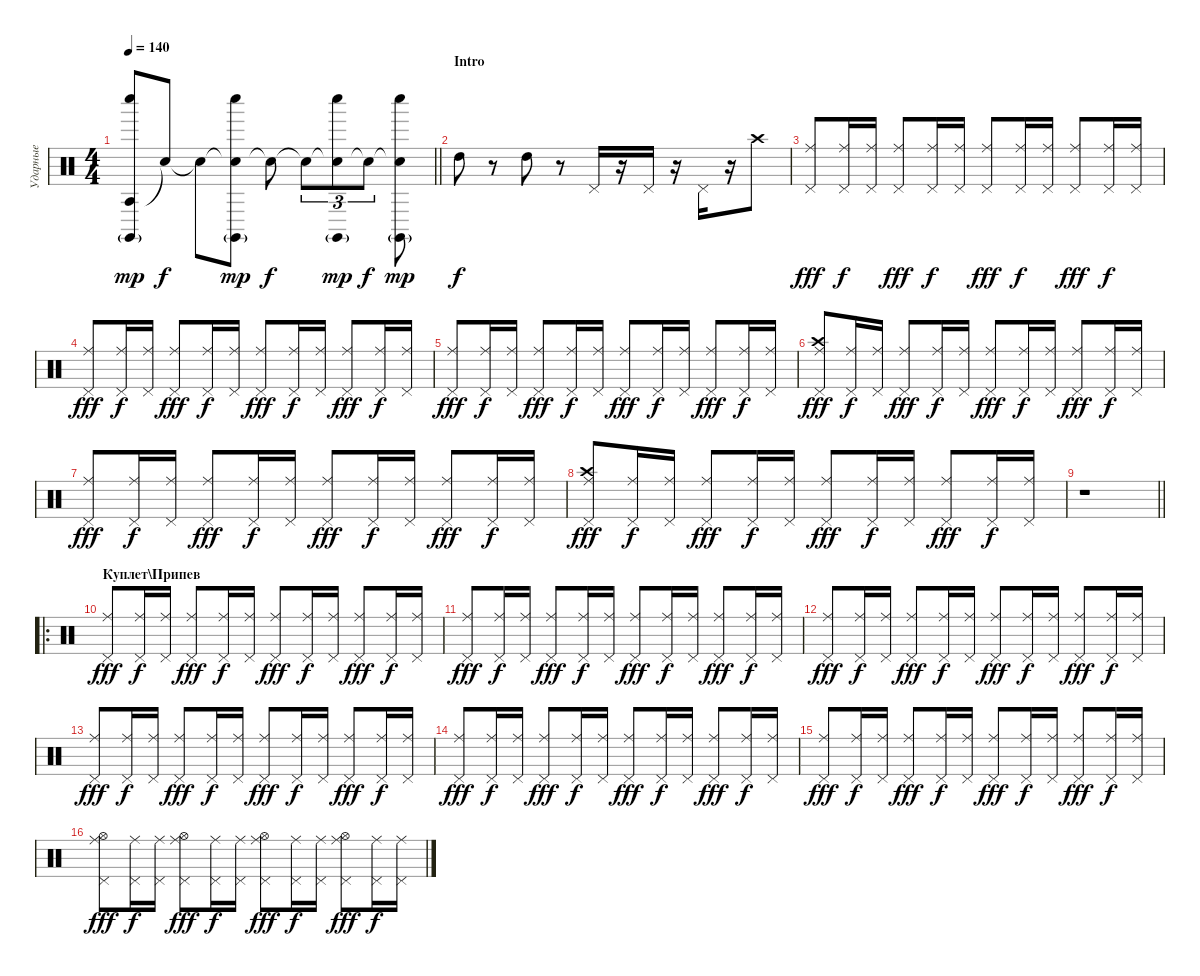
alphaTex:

\track ("Ударные" "Ударные") {instrument percussion}
\staff {score}
\articulation defaults
\ts (4 4)
\tempo 140
\clef neutral
\barLineRight lightlight
\ks c
("Agogo tow (hit)" "Whistle low (hit)" "Claves (hit)"{g}).8{dy mp} "Snare (hit)"{t}.8{dy f} "Snare (hit)"{t}.8 ("Snare (hit)"{t} "Whistle low (hit)" "Claves (hit)"{g}).8{dy mp} "Snare (hit)"{t}.8{dy f} "Snare (hit)"{t}.8{tu (3 2)} ("Snare (hit)"{t} "Whistle low (hit)" "Claves (hit)"{g}).8{tu (3 2) dy mp} "Snare (hit)"{t}.8{tu (3 2) dy f} ("Snare (hit)"{t} "Whistle low (hit)" "Claves (hit)"{g}).8{dy mp} |
\section ("" "Intro")
"High Tom (hit)".8{dy f} r.8 "High Tom (hit)".8 r.8 "Pedal Hi-Hat (hit)".16 r.16 "Pedal Hi-Hat (hit)".16 r.16 "Pedal Hi-Hat (hit)".16 r.16 "Crash high (hit)".8 |
("Ride (middle)" "Pedal Hi-Hat (hit)").8{dy fff} ("Ride (middle)" "Pedal Hi-Hat (hit)").16{dy f} ("Ride (middle)" "Pedal Hi-Hat (hit)").16 ("Ride (middle)" "Pedal Hi-Hat (hit)").8{dy fff} ("Ride (middle)" "Pedal Hi-Hat (hit)").16{dy f} ("Ride (middle)" "Pedal Hi-Hat (hit)").16 ("Ride (middle)" "Pedal Hi-Hat (hit)").8{dy fff} ("Ride (middle)" "Pedal Hi-Hat (hit)").16{dy f} ("Ride (middle)" "Pedal Hi-Hat (hit)").16 ("Ride (middle)" "Pedal Hi-Hat (hit)").8{dy fff} ("Ride (middle)" "Pedal Hi-Hat (hit)").16{dy f} ("Ride (middle)" "Pedal Hi-Hat (hit)").16 |
("Ride (middle)" "Pedal Hi-Hat (hit)").8{dy fff} ("Ride (middle)" "Pedal Hi-Hat (hit)").16{dy f} ("Ride (middle)" "Pedal Hi-Hat (hit)").16 ("Ride (middle)" "Pedal Hi-Hat (hit)").8{dy fff} ("Ride (middle)" "Pedal Hi-Hat (hit)").16{dy f} ("Ride (middle)" "Pedal Hi-Hat (hit)").16 ("Ride (middle)" "Pedal Hi-Hat (hit)").8{dy fff} ("Ride (middle)" "Pedal Hi-Hat (hit)").16{dy f} ("Ride (middle)" "Pedal Hi-Hat (hit)").16 ("Ride (middle)" "Pedal Hi-Hat (hit)").8{dy fff} ("Ride (middle)" "Pedal Hi-Hat (hit)").16{dy f} ("Ride (middle)" "Pedal Hi-Hat (hit)").16 |
("Ride (middle)" "Pedal Hi-Hat (hit)").8{dy fff} ("Ride (middle)" "Pedal Hi-Hat (hit)").16{dy f} ("Ride (middle)" "Pedal Hi-Hat (hit)").16 ("Ride (middle)" "Pedal Hi-Hat (hit)").8{dy fff} ("Ride (middle)" "Pedal Hi-Hat (hit)").16{dy f} ("Ride (middle)" "Pedal Hi-Hat (hit)").16 ("Ride (middle)" "Pedal Hi-Hat (hit)").8{dy fff} ("Ride (middle)" "Pedal Hi-Hat (hit)").16{dy f} ("Ride (middle)" "Pedal Hi-Hat (hit)").16 ("Ride (middle)" "Pedal Hi-Hat (hit)").8{dy fff} ("Ride (middle)" "Pedal Hi-Hat (hit)").16{dy f} ("Ride (middle)" "Pedal Hi-Hat (hit)").16 |
("Ride (middle)" "Pedal Hi-Hat (hit)" "Crash high (hit)").8{dy fff} ("Ride (middle)" "Pedal Hi-Hat (hit)").16{dy f} ("Ride (middle)" "Pedal Hi-Hat (hit)").16 ("Ride (middle)" "Pedal Hi-Hat (hit)").8{dy fff} ("Ride (middle)" "Pedal Hi-Hat (hit)").16{dy f} ("Ride (middle)" "Pedal Hi-Hat (hit)").16 ("Ride (middle)" "Pedal Hi-Hat (hit)").8{dy fff} ("Ride (middle)" "Pedal Hi-Hat (hit)").16{dy f} ("Ride (middle)" "Pedal Hi-Hat (hit)").16 ("Ride (middle)" "Pedal Hi-Hat (hit)").8{dy fff} ("Ride (middle)" "Pedal Hi-Hat (hit)").16{dy f} ("Ride (middle)" "Pedal Hi-Hat (hit)").16 |
("Ride (middle)" "Pedal Hi-Hat (hit)").8{dy fff} ("Ride (middle)" "Pedal Hi-Hat (hit)").16{dy f} ("Ride (middle)" "Pedal Hi-Hat (hit)").16 ("Ride (middle)" "Pedal Hi-Hat (hit)").8{dy fff} ("Ride (middle)" "Pedal Hi-Hat (hit)").16{dy f} ("Ride (middle)" "Pedal Hi-Hat (hit)").16 ("Ride (middle)" "Pedal Hi-Hat (hit)").8{dy fff} ("Ride (middle)" "Pedal Hi-Hat (hit)").16{dy f} ("Ride (middle)" "Pedal Hi-Hat (hit)").16 ("Ride (middle)" "Pedal Hi-Hat (hit)").8{dy fff} ("Ride (middle)" "Pedal Hi-Hat (hit)").16{dy f} ("Ride (middle)" "Pedal Hi-Hat (hit)").16 |
("Ride (middle)" "Pedal Hi-Hat (hit)" "Crash high (hit)").8{dy fff} ("Ride (middle)" "Pedal Hi-Hat (hit)").16{dy f} ("Ride (middle)" "Pedal Hi-Hat (hit)").16 ("Ride (middle)" "Pedal Hi-Hat (hit)").8{dy fff} ("Ride (middle)" "Pedal Hi-Hat (hit)").16{dy f} ("Ride (middle)" "Pedal Hi-Hat (hit)").16 ("Ride (middle)" "Pedal Hi-Hat (hit)").8{dy fff} ("Ride (middle)" "Pedal Hi-Hat (hit)").16{dy f} ("Ride (middle)" "Pedal Hi-Hat (hit)").16 ("Ride (middle)" "Pedal Hi-Hat (hit)").8{dy fff} ("Ride (middle)" "Pedal Hi-Hat (hit)").16{dy f} ("Ride (middle)" "Pedal Hi-Hat (hit)").16 |
\barLineRight lightlight
r.1 |
\ro
\section ("" "Куплет\\Припев")
("Ride (middle)" "Pedal Hi-Hat (hit)").8{dy fff} ("Ride (middle)" "Pedal Hi-Hat (hit)").16{dy f} ("Ride (middle)" "Pedal Hi-Hat (hit)").16 ("Ride (middle)" "Pedal Hi-Hat (hit)").8{dy fff} ("Ride (middle)" "Pedal Hi-Hat (hit)").16{dy f} ("Ride (middle)" "Pedal Hi-Hat (hit)").16 ("Ride (middle)" "Pedal Hi-Hat (hit)").8{dy fff} ("Ride (middle)" "Pedal Hi-Hat (hit)").16{dy f} ("Ride (middle)" "Pedal Hi-Hat (hit)").16 ("Ride (middle)" "Pedal Hi-Hat (hit)").8{dy fff} ("Ride (middle)" "Pedal Hi-Hat (hit)").16{dy f} ("Ride (middle)" "Pedal Hi-Hat (hit)").16 |
("Ride (middle)" "Pedal Hi-Hat (hit)").8{dy fff} ("Ride (middle)" "Pedal Hi-Hat (hit)").16{dy f} ("Ride (middle)" "Pedal Hi-Hat (hit)").16 ("Ride (middle)" "Pedal Hi-Hat (hit)").8{dy fff} ("Ride (middle)" "Pedal Hi-Hat (hit)").16{dy f} ("Ride (middle)" "Pedal Hi-Hat (hit)").16 ("Ride (middle)" "Pedal Hi-Hat (hit)").8{dy fff} ("Ride (middle)" "Pedal Hi-Hat (hit)").16{dy f} ("Ride (middle)" "Pedal Hi-Hat (hit)").16 ("Ride (middle)" "Pedal Hi-Hat (hit)").8{dy fff} ("Ride (middle)" "Pedal Hi-Hat (hit)").16{dy f} ("Ride (middle)" "Pedal Hi-Hat (hit)").16 |
("Ride (middle)" "Pedal Hi-Hat (hit)").8{dy fff} ("Ride (middle)" "Pedal Hi-Hat (hit)").16{dy f} ("Ride (middle)" "Pedal Hi-Hat (hit)").16 ("Ride (middle)" "Pedal Hi-Hat (hit)").8{dy fff} ("Ride (middle)" "Pedal Hi-Hat (hit)").16{dy f} ("Ride (middle)" "Pedal Hi-Hat (hit)").16 ("Ride (middle)" "Pedal Hi-Hat (hit)").8{dy fff} ("Ride (middle)" "Pedal Hi-Hat (hit)").16{dy f} ("Ride (middle)" "Pedal Hi-Hat (hit)").16 ("Ride (middle)" "Pedal Hi-Hat (hit)").8{dy fff} ("Ride (middle)" "Pedal Hi-Hat (hit)").16{dy f} ("Ride (middle)" "Pedal Hi-Hat (hit)").16 |
("Ride (middle)" "Pedal Hi-Hat (hit)").8{dy fff} ("Ride (middle)" "Pedal Hi-Hat (hit)").16{dy f} ("Ride (middle)" "Pedal Hi-Hat (hit)").16 ("Ride (middle)" "Pedal Hi-Hat (hit)").8{dy fff} ("Ride (middle)" "Pedal Hi-Hat (hit)").16{dy f} ("Ride (middle)" "Pedal Hi-Hat (hit)").16 ("Ride (middle)" "Pedal Hi-Hat (hit)").8{dy fff} ("Ride (middle)" "Pedal Hi-Hat (hit)").16{dy f} ("Ride (middle)" "Pedal Hi-Hat (hit)").16 ("Ride (middle)" "Pedal Hi-Hat (hit)").8{dy fff} ("Ride (middle)" "Pedal Hi-Hat (hit)").16{dy f} ("Ride (middle)" "Pedal Hi-Hat (hit)").16 |
("Ride (middle)" "Pedal Hi-Hat (hit)").8{dy fff} ("Ride (middle)" "Pedal Hi-Hat (hit)").16{dy f} ("Ride (middle)" "Pedal Hi-Hat (hit)").16 ("Ride (middle)" "Pedal Hi-Hat (hit)").8{dy fff} ("Ride (middle)" "Pedal Hi-Hat (hit)").16{dy f} ("Ride (middle)" "Pedal Hi-Hat (hit)").16 ("Ride (middle)" "Pedal Hi-Hat (hit)").8{dy fff} ("Ride (middle)" "Pedal Hi-Hat (hit)").16{dy f} ("Ride (middle)" "Pedal Hi-Hat (hit)").16 ("Ride (middle)" "Pedal Hi-Hat (hit)").8{dy fff} ("Ride (middle)" "Pedal Hi-Hat (hit)").16{dy f} ("Ride (middle)" "Pedal Hi-Hat (hit)").16 |
("Ride (middle)" "Pedal Hi-Hat (hit)").8{dy fff} ("Ride (middle)" "Pedal Hi-Hat (hit)").16{dy f} ("Ride (middle)" "Pedal Hi-Hat (hit)").16 ("Ride (middle)" "Pedal Hi-Hat (hit)").8{dy fff} ("Ride (middle)" "Pedal Hi-Hat (hit)").16{dy f} ("Ride (middle)" "Pedal Hi-Hat (hit)").16 ("Ride (middle)" "Pedal Hi-Hat (hit)").8{dy fff} ("Ride (middle)" "Pedal Hi-Hat (hit)").16{dy f} ("Ride (middle)" "Pedal Hi-Hat (hit)").16 ("Ride (middle)" "Pedal Hi-Hat (hit)").8{dy fff} ("Ride (middle)" "Pedal Hi-Hat (hit)").16{dy f} ("Ride (middle)" "Pedal Hi-Hat (hit)").16 |
("Ride (middle)" "Pedal Hi-Hat (hit)" "Hi-Hat (open)").8{dy fff} ("Ride (middle)" "Pedal Hi-Hat (hit)").16{dy f} ("Ride (middle)" "Pedal Hi-Hat (hit)").16 ("Ride (middle)" "Pedal Hi-Hat (hit)" "Hi-Hat (open)").8{dy fff} ("Ride (middle)" "Pedal Hi-Hat (hit)").16{dy f} ("Ride (middle)" "Pedal Hi-Hat (hit)").16 ("Ride (middle)" "Pedal Hi-Hat (hit)" "Hi-Hat (open)").8{dy fff} ("Ride (middle)" "Pedal Hi-Hat (hit)").16{dy f} ("Ride (middle)" "Pedal Hi-Hat (hit)").16 ("Ride (middle)" "Pedal Hi-Hat (hit)" "Hi-Hat (open)").8{dy fff} ("Ride (middle)" "Pedal Hi-Hat (hit)").16{dy f} ("Ride (middle)" "Pedal Hi-Hat (hit)").16
